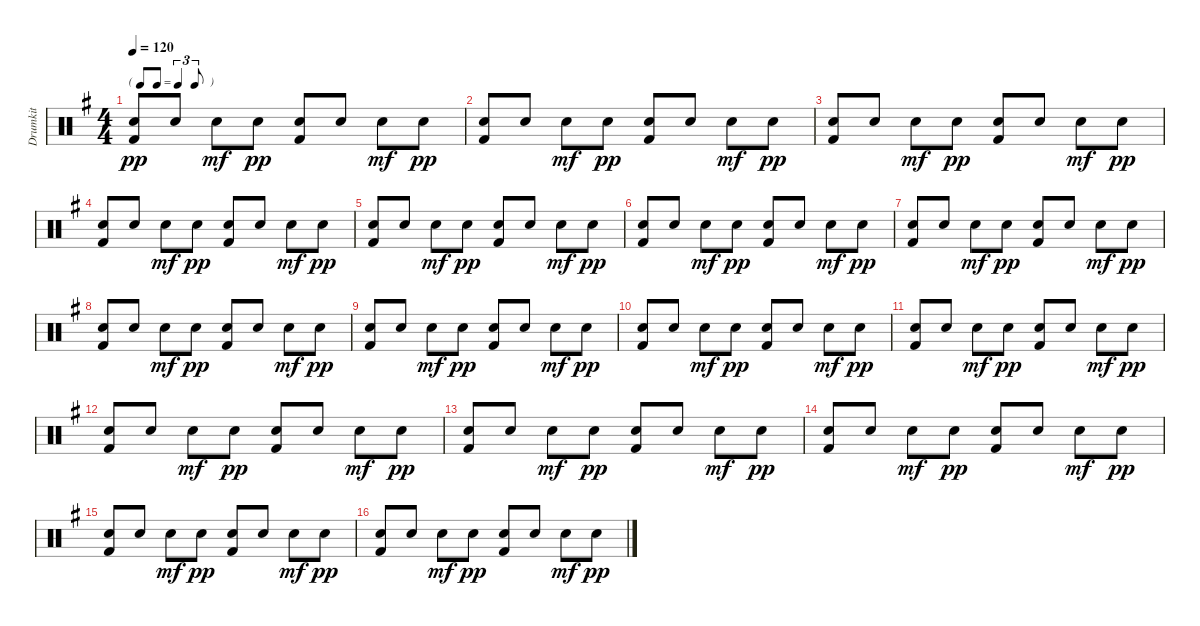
\track ("Drumkit" "Drumkit") {instrument percussion}
\staff {score}
\articulation defaults
\ts (4 4)
\tf triplet8th
\tempo 120
\clef neutral
\ks g
("Snare (hit) 2" "Kick (hit) 2").8{dy pp} "Snare (hit) 2".8 "Snare (hit) 2".8{dy mf} "Snare (hit) 2".8{dy pp} ("Snare (hit) 2" "Kick (hit) 2").8 "Snare (hit) 2".8 "Snare (hit) 2".8{dy mf} "Snare (hit) 2".8{dy pp} |
("Snare (hit) 2" "Kick (hit) 2").8 "Snare (hit) 2".8 "Snare (hit) 2".8{dy mf} "Snare (hit) 2".8{dy pp} ("Snare (hit) 2" "Kick (hit) 2").8 "Snare (hit) 2".8 "Snare (hit) 2".8{dy mf} "Snare (hit) 2".8{dy pp} |
("Snare (hit) 2" "Kick (hit) 2").8 "Snare (hit) 2".8 "Snare (hit) 2".8{dy mf} "Snare (hit) 2".8{dy pp} ("Snare (hit) 2" "Kick (hit) 2").8 "Snare (hit) 2".8 "Snare (hit) 2".8{dy mf} "Snare (hit) 2".8{dy pp} |
("Snare (hit) 2" "Kick (hit) 2").8 "Snare (hit) 2".8 "Snare (hit) 2".8{dy mf} "Snare (hit) 2".8{dy pp} ("Snare (hit) 2" "Kick (hit) 2").8 "Snare (hit) 2".8 "Snare (hit) 2".8{dy mf} "Snare (hit) 2".8{dy pp} |
("Snare (hit) 2" "Kick (hit) 2").8 "Snare (hit) 2".8 "Snare (hit) 2".8{dy mf} "Snare (hit) 2".8{dy pp} ("Snare (hit) 2" "Kick (hit) 2").8 "Snare (hit) 2".8 "Snare (hit) 2".8{dy mf} "Snare (hit) 2".8{dy pp} |
("Snare (hit) 2" "Kick (hit) 2").8 "Snare (hit) 2".8 "Snare (hit) 2".8{dy mf} "Snare (hit) 2".8{dy pp} ("Snare (hit) 2" "Kick (hit) 2").8 "Snare (hit) 2".8 "Snare (hit) 2".8{dy mf} "Snare (hit) 2".8{dy pp} |
("Snare (hit) 2" "Kick (hit) 2").8 "Snare (hit) 2".8 "Snare (hit) 2".8{dy mf} "Snare (hit) 2".8{dy pp} ("Snare (hit) 2" "Kick (hit) 2").8 "Snare (hit) 2".8 "Snare (hit) 2".8{dy mf} "Snare (hit) 2".8{dy pp} |
("Snare (hit) 2" "Kick (hit) 2").8 "Snare (hit) 2".8 "Snare (hit) 2".8{dy mf} "Snare (hit) 2".8{dy pp} ("Snare (hit) 2" "Kick (hit) 2").8 "Snare (hit) 2".8 "Snare (hit) 2".8{dy mf} "Snare (hit) 2".8{dy pp} |
("Snare (hit) 2" "Kick (hit) 2").8 "Snare (hit) 2".8 "Snare (hit) 2".8{dy mf} "Snare (hit) 2".8{dy pp} ("Snare (hit) 2" "Kick (hit) 2").8 "Snare (hit) 2".8 "Snare (hit) 2".8{dy mf} "Snare (hit) 2".8{dy pp} |
("Snare (hit) 2" "Kick (hit) 2").8 "Snare (hit) 2".8 "Snare (hit) 2".8{dy mf} "Snare (hit) 2".8{dy pp} ("Snare (hit) 2" "Kick (hit) 2").8 "Snare (hit) 2".8 "Snare (hit) 2".8{dy mf} "Snare (hit) 2".8{dy pp} |
("Snare (hit) 2" "Kick (hit) 2").8 "Snare (hit) 2".8 "Snare (hit) 2".8{dy mf} "Snare (hit) 2".8{dy pp} ("Snare (hit) 2" "Kick (hit) 2").8 "Snare (hit) 2".8 "Snare (hit) 2".8{dy mf} "Snare (hit) 2".8{dy pp} |
("Snare (hit) 2" "Kick (hit) 2").8 "Snare (hit) 2".8 "Snare (hit) 2".8{dy mf} "Snare (hit) 2".8{dy pp} ("Snare (hit) 2" "Kick (hit) 2").8 "Snare (hit) 2".8 "Snare (hit) 2".8{dy mf} "Snare (hit) 2".8{dy pp} |
("Snare (hit) 2" "Kick (hit) 2").8 "Snare (hit) 2".8 "Snare (hit) 2".8{dy mf} "Snare (hit) 2".8{dy pp} ("Snare (hit) 2" "Kick (hit) 2").8 "Snare (hit) 2".8 "Snare (hit) 2".8{dy mf} "Snare (hit) 2".8{dy pp} |
("Snare (hit) 2" "Kick (hit) 2").8 "Snare (hit) 2".8 "Snare (hit) 2".8{dy mf} "Snare (hit) 2".8{dy pp} ("Snare (hit) 2" "Kick (hit) 2").8 "Snare (hit) 2".8 "Snare (hit) 2".8{dy mf} "Snare (hit) 2".8{dy pp} |
("Snare (hit) 2" "Kick (hit) 2").8 "Snare (hit) 2".8 "Snare (hit) 2".8{dy mf} "Snare (hit) 2".8{dy pp} ("Snare (hit) 2" "Kick (hit) 2").8 "Snare (hit) 2".8 "Snare (hit) 2".8{dy mf} "Snare (hit) 2".8{dy pp} |
("Snare (hit) 2" "Kick (hit) 2").8 "Snare (hit) 2".8 "Snare (hit) 2".8{dy mf} "Snare (hit) 2".8{dy pp} ("Snare (hit) 2" "Kick (hit) 2").8 "Snare (hit) 2".8 "Snare (hit) 2".8{dy mf} "Snare (hit) 2".8{dy pp}
